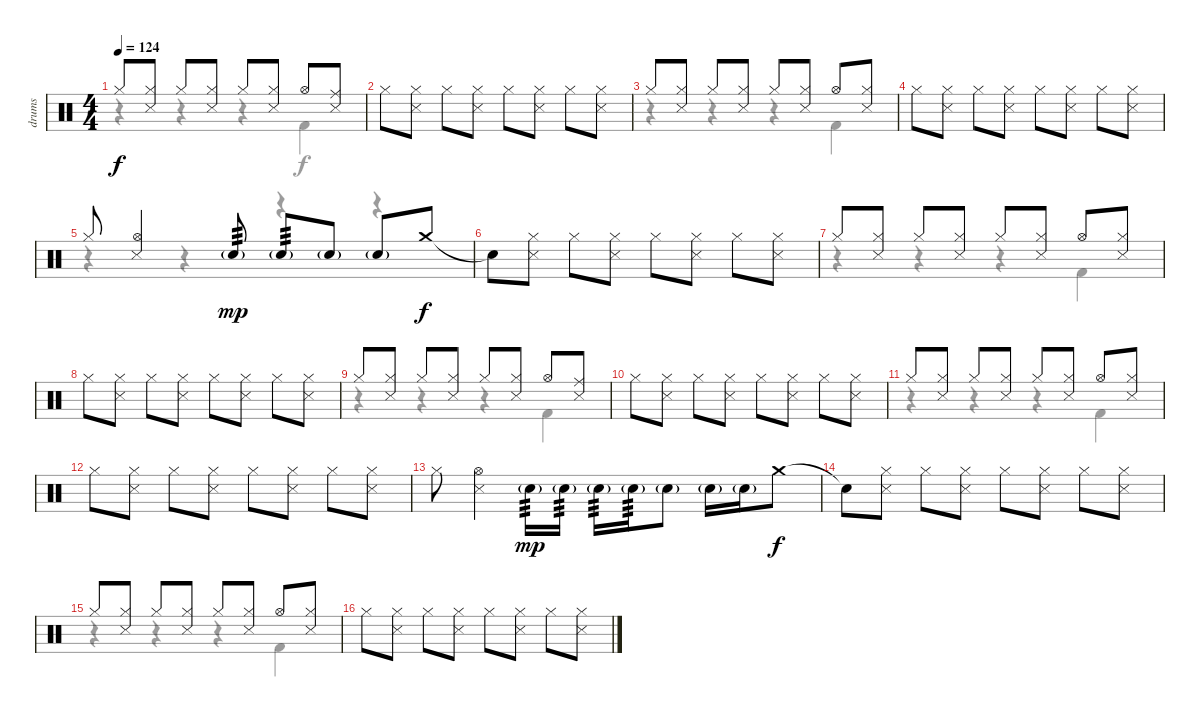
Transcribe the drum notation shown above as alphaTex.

\track ("drums" "drums") {instrument percussion}
\staff {score}
\articulation defaults
\voice
\ts (4 4)
\tempo 124
\clef neutral
\ks c "Hi-Hat (closed)".8{dy f}
("Hi-Hat (closed)" "Snare (side stick) 3").8 "Hi-Hat (closed)".8 ("Hi-Hat (closed)" "Snare (side stick) 3").8 "Hi-Hat (closed)".8 ("Hi-Hat (closed)" "Snare (side stick) 3").8 "Hi-Hat (open)".8 ("Ride (middle)" "Snare (side stick) 3").8 |
"Hi-Hat (closed)".8 ("Hi-Hat (closed)" "Snare (side stick) 3").8 "Hi-Hat (closed)".8 ("Hi-Hat (closed)" "Snare (side stick) 3").8 "Hi-Hat (closed)".8 ("Hi-Hat (closed)" "Snare (side stick) 3").8 "Hi-Hat (closed)".8 ("Hi-Hat (closed)" "Snare (side stick) 3").8 |
"Hi-Hat (closed)".8 ("Hi-Hat (closed)" "Snare (side stick) 3").8 "Hi-Hat (closed)".8 ("Hi-Hat (closed)" "Snare (side stick) 3").8 "Hi-Hat (closed)".8 ("Hi-Hat (closed)" "Snare (side stick) 3").8 "Hi-Hat (open)".8 ("Hi-Hat (closed)" "Snare (side stick) 3").8 |
"Hi-Hat (closed)".8 ("Hi-Hat (closed)" "Snare (side stick) 3").8 "Hi-Hat (closed)".8 ("Hi-Hat (closed)" "Snare (side stick) 3").8 "Hi-Hat (closed)".8 ("Hi-Hat (closed)" "Snare (side stick) 3").8 "Hi-Hat (closed)".8 ("Hi-Hat (closed)" "Snare (side stick) 3").8 |
"Hi-Hat (closed)".8 ("Hi-Hat (open)" "Snare (side stick) 3").4 "Snare (hit) 2"{g}.8{tp 3 dy mp} "Snare (hit) 2"{g}.8{tp 3} "Snare (hit) 2"{g}.8 "Snare (hit) 2"{g}.8 "Crash medium (hit)".8{dy f} |
"Snare (hit)"{t}.8 ("Hi-Hat (closed)" "Snare (side stick) 3").8 "Hi-Hat (closed)".8 ("Hi-Hat (closed)" "Snare (side stick) 3").8 "Hi-Hat (closed)".8 ("Hi-Hat (closed)" "Snare (side stick) 3").8 "Hi-Hat (closed)".8 ("Hi-Hat (closed)" "Snare (side stick) 3").8 |
"Hi-Hat (closed)".8 ("Hi-Hat (closed)" "Snare (side stick) 3").8 "Hi-Hat (closed)".8 ("Hi-Hat (closed)" "Snare (side stick) 3").8 "Hi-Hat (closed)".8 ("Hi-Hat (closed)" "Snare (side stick) 3").8 "Hi-Hat (open)".8 ("Hi-Hat (closed)" "Snare (side stick) 3").8 |
"Hi-Hat (closed)".8 ("Hi-Hat (closed)" "Snare (side stick) 3").8 "Hi-Hat (closed)".8 ("Hi-Hat (closed)" "Snare (side stick) 3").8 "Hi-Hat (closed)".8 ("Hi-Hat (closed)" "Snare (side stick) 3").8 "Hi-Hat (closed)".8 ("Hi-Hat (closed)" "Snare (side stick) 3").8 |
"Hi-Hat (closed)".8 ("Hi-Hat (closed)" "Snare (side stick) 3").8 "Hi-Hat (closed)".8 ("Hi-Hat (closed)" "Snare (side stick) 3").8 "Hi-Hat (closed)".8 ("Hi-Hat (closed)" "Snare (side stick) 3").8 "Hi-Hat (open)".8 ("Ride (middle)" "Snare (side stick) 3").8 |
"Hi-Hat (closed)".8 ("Hi-Hat (closed)" "Snare (side stick) 3").8 "Hi-Hat (closed)".8 ("Hi-Hat (closed)" "Snare (side stick) 3").8 "Hi-Hat (closed)".8 ("Hi-Hat (closed)" "Snare (side stick) 3").8 "Hi-Hat (closed)".8 ("Hi-Hat (closed)" "Snare (side stick) 3").8 |
"Hi-Hat (closed)".8 ("Hi-Hat (closed)" "Snare (side stick) 3").8 "Hi-Hat (closed)".8 ("Hi-Hat (closed)" "Snare (side stick) 3").8 "Hi-Hat (closed)".8 ("Hi-Hat (closed)" "Snare (side stick) 3").8 "Hi-Hat (open)".8 ("Hi-Hat (closed)" "Snare (side stick) 3").8 |
"Hi-Hat (closed)".8 ("Hi-Hat (closed)" "Snare (side stick) 3").8 "Hi-Hat (closed)".8 ("Hi-Hat (closed)" "Snare (side stick) 3").8 "Hi-Hat (closed)".8 ("Hi-Hat (closed)" "Snare (side stick) 3").8 "Hi-Hat (closed)".8 ("Hi-Hat (closed)" "Snare (side stick) 3").8 |
"Hi-Hat (closed)".8 ("Hi-Hat (open)" "Snare (side stick) 3").4 "Snare (hit) 2"{g}.16{tp 3 dy mp} "Snare (hit) 2"{g}.16{tp 3} "Snare (hit) 2"{g}.16{tp 3} "Snare (hit) 2"{g}.16{tp 3} "Snare (hit) 2"{g}.8 "Snare (hit) 2"{g}.16 "Snare (hit) 2"{g}.16 "Crash medium (hit)".8{dy f} |
"Snare (hit)"{t}.8 ("Hi-Hat (closed)" "Snare (side stick) 3").8 "Hi-Hat (closed)".8 ("Hi-Hat (closed)" "Snare (side stick) 3").8 "Hi-Hat (closed)".8 ("Hi-Hat (closed)" "Snare (side stick) 3").8 "Hi-Hat (closed)".8 ("Hi-Hat (closed)" "Snare (side stick) 3").8 |
"Hi-Hat (closed)".8 ("Hi-Hat (closed)" "Snare (side stick) 3").8 "Hi-Hat (closed)".8 ("Hi-Hat (closed)" "Snare (side stick) 3").8 "Hi-Hat (closed)".8 ("Hi-Hat (closed)" "Snare (side stick) 3").8 "Hi-Hat (open)".8 ("Hi-Hat (closed)" "Snare (side stick) 3").8 |
"Hi-Hat (closed)".8 ("Hi-Hat (closed)" "Snare (side stick) 3").8 "Hi-Hat (closed)".8 ("Hi-Hat (closed)" "Snare (side stick) 3").8 "Hi-Hat (closed)".8 ("Hi-Hat (closed)" "Snare (side stick) 3").8 "Hi-Hat (closed)".8 ("Hi-Hat (closed)" "Snare (side stick) 3").8
\voice
\clef neutral
\ottava regular
\simile none
\ks c
r.4{dy f} r.4 r.4 "Kick (hit) 2".4 |
|
r.4 r.4 r.4 "Kick (hit) 2".4 |
|
r.4 r.4 r.4 r.4 |
|
r.4 r.4 r.4 "Kick (hit) 2".4 |
|
r.4 r.4 r.4 "Kick (hit) 2".4 |
|
r.4 r.4 r.4 "Kick (hit) 2".4 |
|
|
|
r.4 r.4 r.4 "Kick (hit) 2".4 |
